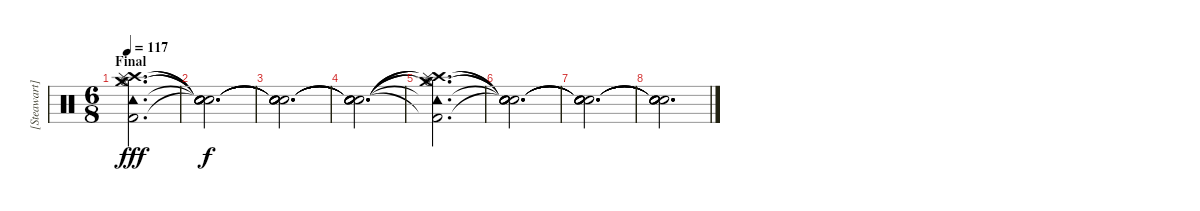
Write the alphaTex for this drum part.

\track ("[Steawart] Drums" "[Steawart]") {instrument percussion}
\staff {score}
\articulation defaults
\ts (6 8)
\section ("" "Final ")
\tempo 117
\clef neutral
\ks c
("Crash medium (hit)" "Hi-Hat (open)" "Crash high (hit)" "Tambourine (hit)" "Splash (hit)" "Kick (hit) 2").2{d dy fff} |
("Snare (hit)"{t} "Snare (hit)"{t} "Snare (hit)"{t} "Snare (hit)"{t} "Snare (hit)"{t} "Snare (hit)"{t}).2{d dy f} |
("Snare (hit)"{t} "Snare (hit)"{t} "Snare (hit)"{t} "Snare (hit)"{t} "Snare (hit)"{t} "Snare (hit)"{t}).2{d} |
("Snare (hit)"{t} "Snare (hit)"{t} "Snare (hit)"{t} "Snare (hit)"{t} "Snare (hit)"{t} "Snare (hit)"{t}).2{d} |
("Crash medium (hit)"{t} "Hi-Hat (open)"{t} "Crash high (hit)"{t} "Tambourine (hit)"{t} "Splash (hit)"{t} "Kick (hit) 2"{t}).2{d} |
("Snare (hit)"{t} "Snare (hit)"{t} "Snare (hit)"{t} "Snare (hit)"{t} "Snare (hit)"{t} "Snare (hit)"{t}).2{d} |
("Snare (hit)"{t} "Snare (hit)"{t} "Snare (hit)"{t} "Snare (hit)"{t} "Snare (hit)"{t} "Snare (hit)"{t}).2{d} |
("Snare (hit)"{t} "Snare (hit)"{t} "Snare (hit)"{t} "Snare (hit)"{t} "Snare (hit)"{t} "Snare (hit)"{t}).2{d}
